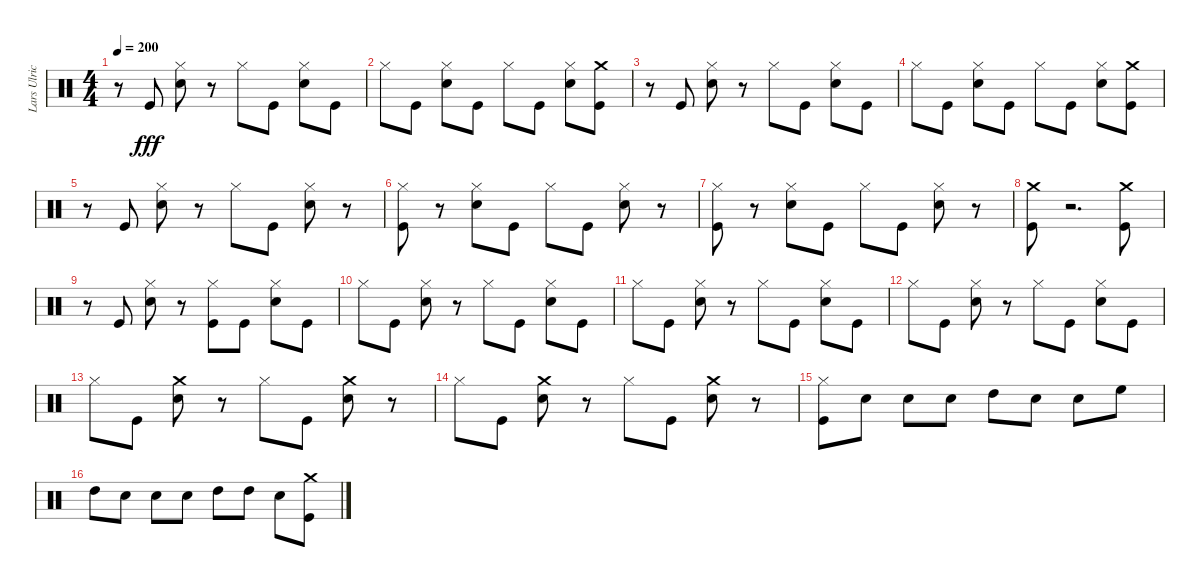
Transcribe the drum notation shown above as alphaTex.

\track ("Lars Ulrich" "Lars Ulric") {instrument percussion}
\staff {score}
\articulation defaults
\ts (4 4)
\tempo 200
\clef neutral
\ks c
r.8{dy fff} "Kick (hit)".8 ("Hi-Hat (closed)" "Snare (hit) 2").8 r.8 "Hi-Hat (closed)".8 "Kick (hit)".8 ("Hi-Hat (closed)" "Snare (hit) 2").8 "Kick (hit)".8 |
"Hi-Hat (closed)".8 "Kick (hit)".8 ("Hi-Hat (closed)" "Snare (hit) 2").8 "Kick (hit)".8 "Hi-Hat (closed)".8 "Kick (hit)".8 ("Hi-Hat (closed)" "Snare (hit) 2").8 ("Crash medium (hit)" "Kick (hit)").8 |
r.8 "Kick (hit)".8 ("Hi-Hat (closed)" "Snare (hit) 2").8 r.8 "Hi-Hat (closed)".8 "Kick (hit)".8 ("Snare (hit) 2" "Hi-Hat (closed)").8 "Kick (hit)".8 |
"Hi-Hat (closed)".8 "Kick (hit)".8 ("Hi-Hat (closed)" "Snare (hit) 2").8 "Kick (hit)".8 "Hi-Hat (closed)".8 "Kick (hit)".8 ("Hi-Hat (closed)" "Snare (hit) 2").8 ("Crash medium (hit)" "Kick (hit)").8 |
r.8 "Kick (hit)".8 ("Hi-Hat (closed)" "Snare (hit) 2").8 r.8 "Hi-Hat (closed)".8 "Kick (hit)".8 ("Hi-Hat (closed)" "Snare (hit) 2").8 r.8 |
("Hi-Hat (closed)" "Kick (hit)").8 r.8 ("Hi-Hat (closed)" "Snare (hit) 2").8 "Kick (hit)".8 "Hi-Hat (closed)".8 "Kick (hit)".8 ("Hi-Hat (closed)" "Snare (hit) 2").8 r.8 |
("Hi-Hat (closed)" "Kick (hit)").8 r.8 ("Hi-Hat (closed)" "Snare (hit) 2").8 "Kick (hit)".8 "Hi-Hat (closed)".8 "Kick (hit)".8 ("Hi-Hat (closed)" "Snare (hit) 2").8 r.8 |
("Crash medium (hit)" "Kick (hit)").8 r.2{d} ("Crash medium (hit)" "Kick (hit)").8 |
r.8 "Kick (hit)".8 ("Hi-Hat (closed)" "Snare (hit) 2").8 r.8 ("Kick (hit)" "Hi-Hat (closed)").8 "Kick (hit)".8 ("Hi-Hat (closed)" "Snare (hit) 2").8 "Kick (hit)".8 |
"Hi-Hat (closed)".8 "Kick (hit)".8 ("Hi-Hat (closed)" "Snare (hit) 2").8 r.8 "Hi-Hat (closed)".8 "Kick (hit)".8 ("Hi-Hat (closed)" "Snare (hit) 2").8 "Kick (hit)".8 |
"Hi-Hat (closed)".8 "Kick (hit)".8 ("Hi-Hat (closed)" "Snare (hit) 2").8 r.8 "Hi-Hat (closed)".8 "Kick (hit)".8 ("Hi-Hat (closed)" "Snare (hit) 2").8 "Kick (hit)".8 |
"Hi-Hat (closed)".8 "Kick (hit)".8 ("Hi-Hat (closed)" "Snare (hit) 2").8 r.8 "Hi-Hat (closed)".8 "Kick (hit)".8 ("Hi-Hat (closed)" "Snare (hit) 2").8 "Kick (hit)".8 |
"Hi-Hat (closed)".8 "Kick (hit)".8 ("Crash medium (hit)" "Snare (hit) 2").8 r.8 "Hi-Hat (closed)".8 "Kick (hit)".8 ("Crash medium (hit)" "Snare (hit) 2").8 r.8 |
"Hi-Hat (closed)".8 "Kick (hit)".8 ("Crash medium (hit)" "Snare (hit) 2").8 r.8 "Hi-Hat (closed)".8 "Kick (hit)".8 ("Crash medium (hit)" "Snare (hit) 2").8 r.8 |
("Hi-Hat (closed)" "Kick (hit)").8 "Snare (hit) 2".8 "Snare (hit) 2".8 "Snare (hit) 2".8 "High Tom (hit)".8 "Snare (hit) 2".8 "Snare (hit) 2".8 "High Floor Tom (hit)".8 |
"High Tom (hit)".8 "Snare (hit) 2".8 "Snare (hit) 2".8 "Snare (hit) 2".8 "High Tom (hit)".8 "High Tom (hit)".8 "Snare (hit) 2".8 ("Crash medium (hit)" "Kick (hit)").8
